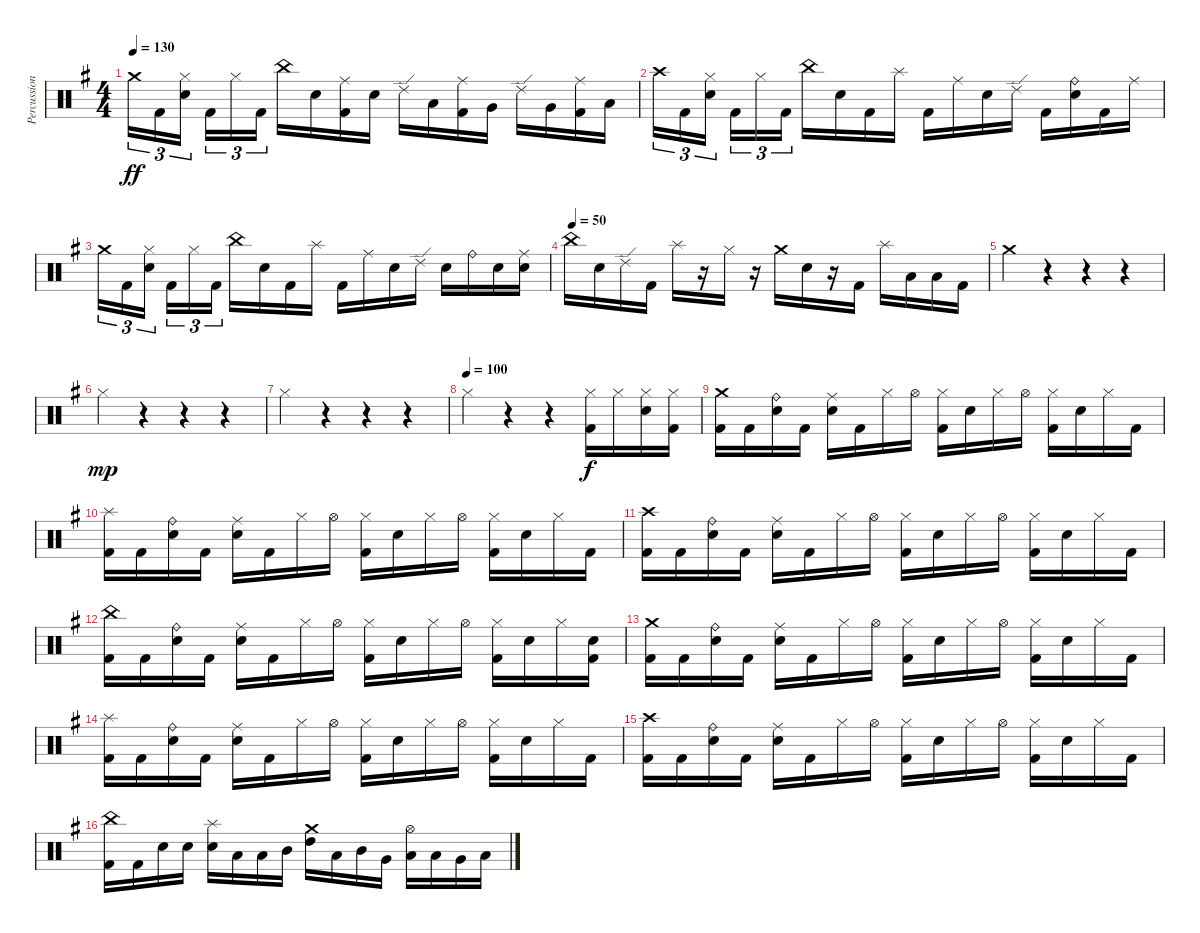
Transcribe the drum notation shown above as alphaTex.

\track ("Percussion" "Percussion") {instrument percussion}
\staff {score}
\articulation defaults
\ts (4 4)
\tempo 130
\clef neutral
\ks g "Crash medium (hit)".16{tu (3 2) dy ff} "Kick (hit) 2".16{tu (3 2)}
("Hi-Hat (closed)" "Electric Snare (hit)").16{tu (3 2) beam splitsecondary} "Kick (hit) 2".16{tu (3 2)} "Hi-Hat (closed)".16{tu (3 2)} "Kick (hit) 2".16{tu (3 2)} "China (hit)".16 "Electric Snare (hit)".16 ("Ride (middle)" "Kick (hit) 2").16 "Electric Snare (hit)".16 "Ride (edge) 2".16 "Low Tom (hit)".16 ("Ride (middle)" "Kick (hit) 2").16 "Very Low Tom (hit)".16 "Ride (edge) 2".16 "Very Low Tom (hit)".16 ("Ride (middle)" "Kick (hit) 2").16 "Low Floor Tom (hit)".16 |
"Crash high (hit)".16{tu (3 2)} "Kick (hit) 2".16{tu (3 2)} ("Hi-Hat (closed)" "Electric Snare (hit)").16{tu (3 2) beam splitsecondary} "Kick (hit) 2".16{tu (3 2)} "Hi-Hat (closed)".16{tu (3 2)} "Kick (hit) 2".16{tu (3 2)} "China (hit)".16 "Electric Snare (hit)".16 "Kick (hit) 2".16 "Splash (hit)".16 "Kick (hit) 2".16 "Ride (middle)".16 "Electric Snare (hit)".16 "Ride (edge) 2".16 "Kick (hit) 2".16 ("Ride (bell)" "Electric Snare (hit)").16 "Kick (hit) 2".16 "Ride (middle)".16 |
"Crash medium (hit)".16{tu (3 2)} "Kick (hit) 2".16{tu (3 2)} ("Hi-Hat (closed)" "Electric Snare (hit)").16{tu (3 2) beam splitsecondary} "Kick (hit) 2".16{tu (3 2)} "Hi-Hat (closed)".16{tu (3 2)} "Kick (hit) 2".16{tu (3 2)} "China (hit)".16 "Electric Snare (hit)".16 "Kick (hit) 2".16 "Splash (hit)".16 "Kick (hit) 2".16 "Ride (middle)".16 "Electric Snare (hit)".16 "Ride (edge) 2".16 "Electric Snare (hit)".16 "Ride (bell)".16 "Electric Snare (hit)".16 ("Ride (middle)" "Electric Snare (hit)").16 |
\tempo (50)
"China (hit)".16 "Electric Snare (hit)".16 "Ride (edge) 2".16 "Kick (hit) 2".16 "Splash (hit)".16 r.16 "Hi-Hat (closed)".16 r.16 "Crash medium (hit)".16 "Electric Snare (hit)".16 r.16 "Kick (hit) 2".16 "Splash (hit)".16 "Low Floor Tom (hit)".16 "Low Floor Tom (hit)".16 "Kick (hit) 2".16 |
"Crash medium (hit)".4 r.4 r.4 r.4 |
"Hi-Hat (closed)".4{dy mp} r.4 r.4 r.4 |
"Hi-Hat (closed)".4 r.4 r.4 r.4 |
\tempo (100)
"Hi-Hat (closed)".4 r.4 r.4 ("Hi-Hat (closed)" "Kick (hit) 2").16{dy f} "Hi-Hat (closed)".16 ("Hi-Hat (closed)" "Electric Snare (hit)").16 ("Hi-Hat (closed)" "Kick (hit) 2").16 |
("Crash medium (hit)" "Kick (hit) 2").16 "Kick (hit) 2".16 ("Ride (bell)" "Electric Snare (hit)").16 "Kick (hit) 2".16 ("Ride (middle)" "Electric Snare (hit)").16 "Kick (hit) 2".16 "Hi-Hat (closed)".16 "Hi-Hat (open)".16 ("Hi-Hat (closed)" "Kick (hit) 2").16 "Electric Snare (hit)".16 "Hi-Hat (closed)".16 "Hi-Hat (open)".16 ("Hi-Hat (closed)" "Kick (hit) 2").16 "Electric Snare (hit)".16 "Hi-Hat (closed)".16 "Kick (hit) 2".16 |
("Splash (hit)" "Kick (hit) 2").16 "Kick (hit) 2".16 ("Ride (bell)" "Electric Snare (hit)").16 "Kick (hit) 2".16 ("Ride (middle)" "Electric Snare (hit)").16 "Kick (hit) 2".16 "Hi-Hat (closed)".16 "Hi-Hat (open)".16 ("Hi-Hat (closed)" "Kick (hit) 2").16 "Electric Snare (hit)".16 "Hi-Hat (closed)".16 "Hi-Hat (open)".16 ("Hi-Hat (closed)" "Kick (hit) 2").16 "Electric Snare (hit)".16 "Hi-Hat (closed)".16 "Kick (hit) 2".16 |
("Crash high (hit)" "Kick (hit) 2").16 "Kick (hit) 2".16 ("Ride (bell)" "Electric Snare (hit)").16 "Kick (hit) 2".16 ("Ride (middle)" "Electric Snare (hit)").16 "Kick (hit) 2".16 "Hi-Hat (closed)".16 "Hi-Hat (open)".16 ("Hi-Hat (closed)" "Kick (hit) 2").16 "Electric Snare (hit)".16 "Hi-Hat (closed)".16 "Hi-Hat (open)".16 ("Hi-Hat (closed)" "Kick (hit) 2").16 "Electric Snare (hit)".16 "Hi-Hat (closed)".16 "Kick (hit) 2".16 |
("China (hit)" "Kick (hit) 2").16 "Kick (hit) 2".16 ("Ride (bell)" "Electric Snare (hit)").16 "Kick (hit) 2".16 ("Ride (middle)" "Electric Snare (hit)").16 "Kick (hit) 2".16 "Hi-Hat (closed)".16 "Hi-Hat (open)".16 ("Hi-Hat (closed)" "Kick (hit) 2").16 "Electric Snare (hit)".16 "Hi-Hat (closed)".16 "Hi-Hat (open)".16 ("Hi-Hat (closed)" "Kick (hit) 2").16 "Electric Snare (hit)".16 "Hi-Hat (closed)".16 ("Electric Snare (hit)" "Kick (hit) 2").16 |
("Crash medium (hit)" "Kick (hit) 2").16 "Kick (hit) 2".16 ("Ride (bell)" "Electric Snare (hit)").16 "Kick (hit) 2".16 ("Ride (middle)" "Electric Snare (hit)").16 "Kick (hit) 2".16 "Hi-Hat (closed)".16 "Hi-Hat (open)".16 ("Hi-Hat (closed)" "Kick (hit) 2").16 "Electric Snare (hit)".16 "Hi-Hat (closed)".16 "Hi-Hat (open)".16 ("Hi-Hat (closed)" "Kick (hit) 2").16 "Electric Snare (hit)".16 "Hi-Hat (closed)".16 "Kick (hit) 2".16 |
("Splash (hit)" "Kick (hit) 2").16 "Kick (hit) 2".16 ("Ride (bell)" "Electric Snare (hit)").16 "Kick (hit) 2".16 ("Ride (middle)" "Electric Snare (hit)").16 "Kick (hit) 2".16 "Hi-Hat (closed)".16 "Hi-Hat (open)".16 ("Hi-Hat (closed)" "Kick (hit) 2").16 "Electric Snare (hit)".16 "Hi-Hat (closed)".16 "Hi-Hat (open)".16 ("Hi-Hat (closed)" "Kick (hit) 2").16 "Electric Snare (hit)".16 "Hi-Hat (closed)".16 "Kick (hit) 2".16 |
("Crash high (hit)" "Kick (hit) 2").16 "Kick (hit) 2".16 ("Ride (bell)" "Electric Snare (hit)").16 "Kick (hit) 2".16 ("Ride (middle)" "Electric Snare (hit)").16 "Kick (hit) 2".16 "Hi-Hat (closed)".16 "Hi-Hat (open)".16 ("Hi-Hat (closed)" "Kick (hit) 2").16 "Electric Snare (hit)".16 "Hi-Hat (closed)".16 "Hi-Hat (open)".16 ("Hi-Hat (closed)" "Kick (hit) 2").16 "Electric Snare (hit)".16 "Hi-Hat (closed)".16 "Kick (hit) 2".16 |
("China (hit)" "Kick (hit) 2").16 "Kick (hit) 2".16 "Electric Snare (hit)".16 "Electric Snare (hit)".16 ("Splash (hit)" "Electric Snare (hit)").16 "Low Tom (hit)".16 "Low Tom (hit)".16 "Mid Tom (hit)".16 ("Crash medium (hit)" "High Tom (hit)").16 "Low Tom (hit)".16 "Mid Tom (hit)".16 "Very Low Tom (hit)".16 ("Hi-Hat (open)" "Low Tom (hit)").16 "Low Floor Tom (hit)".16 "Very Low Tom (hit)".16 "Low Floor Tom (hit)".16
